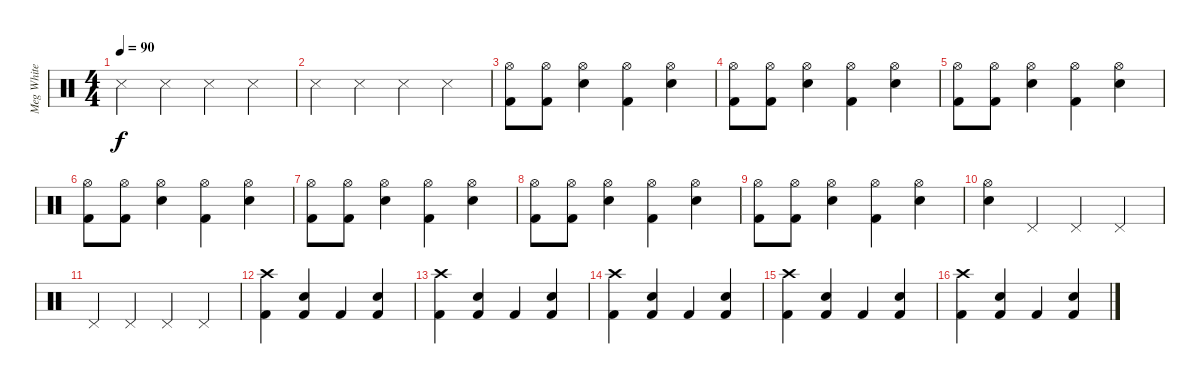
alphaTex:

\track ("Meg White" "Meg White") {instrument percussion}
\staff {score}
\articulation defaults
\ts (4 4)
\tempo 90
\clef neutral
\ks c "Snare (side stick) 3".4{dy f} "Snare (side stick) 3".4 "Snare (side stick) 3".4 "Snare (side stick) 3".4
|
"Snare (side stick) 3".4 "Snare (side stick) 3".4 "Snare (side stick) 3".4 "Snare (side stick) 3".4 |
("Hi-Hat (open)" "Kick (hit) 2").8 ("Hi-Hat (open)" "Kick (hit) 2").8 ("Hi-Hat (open)" "Electric Snare (hit)").4 ("Hi-Hat (open)" "Kick (hit) 2").4 ("Hi-Hat (open)" "Electric Snare (hit)").4 |
("Hi-Hat (open)" "Kick (hit) 2").8 ("Hi-Hat (open)" "Kick (hit) 2").8 ("Hi-Hat (open)" "Electric Snare (hit)").4 ("Hi-Hat (open)" "Kick (hit) 2").4 ("Hi-Hat (open)" "Electric Snare (hit)").4 |
("Hi-Hat (open)" "Kick (hit) 2").8 ("Hi-Hat (open)" "Kick (hit) 2").8 ("Hi-Hat (open)" "Electric Snare (hit)").4 ("Hi-Hat (open)" "Kick (hit) 2").4 ("Hi-Hat (open)" "Electric Snare (hit)").4 |
("Hi-Hat (open)" "Kick (hit) 2").8 ("Hi-Hat (open)" "Kick (hit) 2").8 ("Hi-Hat (open)" "Electric Snare (hit)").4 ("Hi-Hat (open)" "Kick (hit) 2").4 ("Hi-Hat (open)" "Electric Snare (hit)").4 |
("Hi-Hat (open)" "Kick (hit) 2").8 ("Hi-Hat (open)" "Kick (hit) 2").8 ("Hi-Hat (open)" "Electric Snare (hit)").4 ("Hi-Hat (open)" "Kick (hit) 2").4 ("Hi-Hat (open)" "Electric Snare (hit)").4 |
("Hi-Hat (open)" "Kick (hit) 2").8 ("Hi-Hat (open)" "Kick (hit) 2").8 ("Hi-Hat (open)" "Electric Snare (hit)").4 ("Hi-Hat (open)" "Kick (hit) 2").4 ("Hi-Hat (open)" "Electric Snare (hit)").4 |
("Hi-Hat (open)" "Kick (hit) 2").8 ("Hi-Hat (open)" "Kick (hit) 2").8 ("Hi-Hat (open)" "Electric Snare (hit)").4 ("Hi-Hat (open)" "Kick (hit) 2").4 ("Hi-Hat (open)" "Electric Snare (hit)").4 |
("Hi-Hat (open)" "Electric Snare (hit)").4 "Pedal Hi-Hat (hit)".4 "Pedal Hi-Hat (hit)".4 "Pedal Hi-Hat (hit)".4 |
"Pedal Hi-Hat (hit)".4 "Pedal Hi-Hat (hit)".4 "Pedal Hi-Hat (hit)".4 "Pedal Hi-Hat (hit)".4 |
("Crash high (hit)" "Kick (hit) 2").4 ("Kick (hit) 2" "Electric Snare (hit)").4 "Kick (hit) 2".4 ("Kick (hit) 2" "Electric Snare (hit)").4 |
("Crash high (hit)" "Kick (hit) 2").4 ("Kick (hit) 2" "Electric Snare (hit)").4 "Kick (hit) 2".4 ("Kick (hit) 2" "Electric Snare (hit)").4 |
("Crash high (hit)" "Kick (hit) 2").4 ("Kick (hit) 2" "Electric Snare (hit)").4 "Kick (hit) 2".4 ("Kick (hit) 2" "Electric Snare (hit)").4 |
("Crash high (hit)" "Kick (hit) 2").4 ("Kick (hit) 2" "Electric Snare (hit)").4 "Kick (hit) 2".4 ("Kick (hit) 2" "Electric Snare (hit)").4 |
("Crash high (hit)" "Kick (hit) 2").4 ("Kick (hit) 2" "Electric Snare (hit)").4 "Kick (hit) 2".4 ("Kick (hit) 2" "Electric Snare (hit)").4
